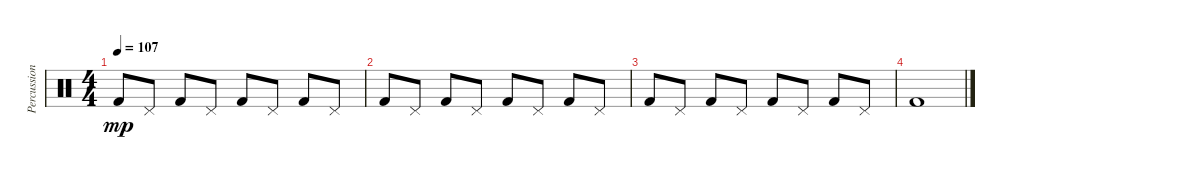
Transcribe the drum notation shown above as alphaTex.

\track ("Percussion" "Percussion") {instrument percussion}
\staff {score}
\articulation defaults
\ts (4 4)
\tempo 107
\clef neutral
\ks c "Kick (hit) 2".8{dy mp} "Pedal Hi-Hat (hit)".8 "Kick (hit) 2".8 "Pedal Hi-Hat (hit)".8 "Kick (hit) 2".8 "Pedal Hi-Hat (hit)".8 "Kick (hit) 2".8 "Pedal Hi-Hat (hit)".8
|
"Kick (hit) 2".8 "Pedal Hi-Hat (hit)".8 "Kick (hit) 2".8 "Pedal Hi-Hat (hit)".8 "Kick (hit) 2".8 "Pedal Hi-Hat (hit)".8 "Kick (hit) 2".8 "Pedal Hi-Hat (hit)".8 |
"Kick (hit) 2".8 "Pedal Hi-Hat (hit)".8 "Kick (hit) 2".8 "Pedal Hi-Hat (hit)".8 "Kick (hit) 2".8 "Pedal Hi-Hat (hit)".8 "Kick (hit) 2".8 "Pedal Hi-Hat (hit)".8 |
"Kick (hit) 2".1
